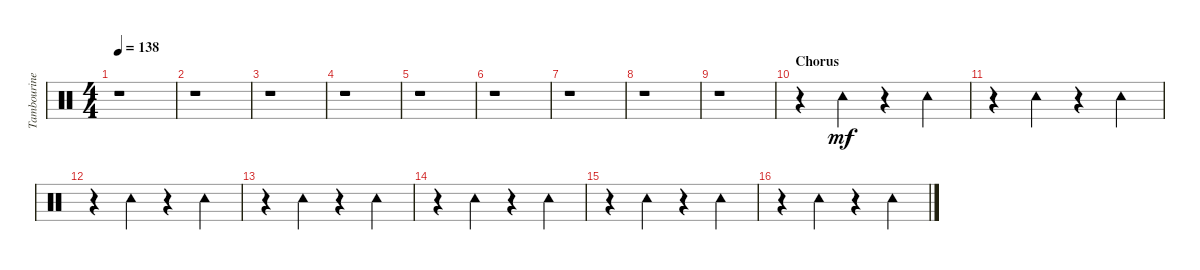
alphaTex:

\track ("Tambourine" "Tambourine") {instrument percussion}
\staff {score}
\articulation defaults
\ts (4 4)
\tempo 138
\clef neutral
\ks c
r.1{dy mf} |
r.1 |
r.1 |
r.1 |
r.1 |
r.1 |
r.1 |
r.1 |
r.1 |
\section ("" "Chorus")
r.4 "Tambourine (hit)".4 r.4 "Tambourine (hit)".4 |
r.4 "Tambourine (hit)".4 r.4 "Tambourine (hit)".4 |
r.4 "Tambourine (hit)".4 r.4 "Tambourine (hit)".4 |
r.4 "Tambourine (hit)".4 r.4 "Tambourine (hit)".4 |
r.4 "Tambourine (hit)".4 r.4 "Tambourine (hit)".4 |
r.4 "Tambourine (hit)".4 r.4 "Tambourine (hit)".4 |
r.4 "Tambourine (hit)".4 r.4 "Tambourine (hit)".4
